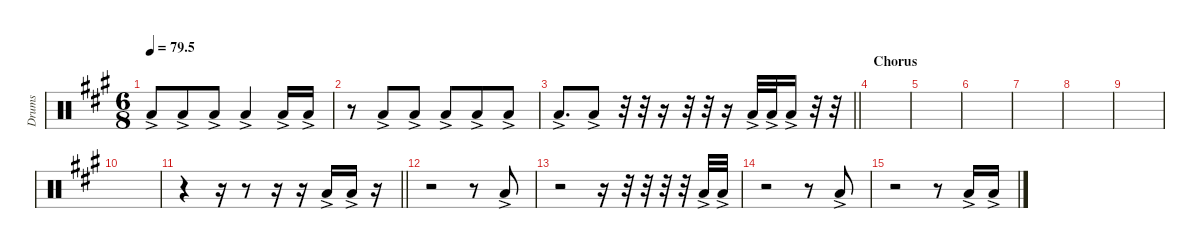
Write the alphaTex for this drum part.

\defaultSystemsLayout 4
\hideDynamics
\bracketExtendMode nobrackets
\otherSystemsTrackNameOrientation horizontal
\track ("Tom 03" "Drums") {instrument percussion}
\staff {score}
\articulation defaults
\ts (6 8)
\tempo
79.5
\accidentals auto
\clef neutral
\ottava regular
\simile none
\scale
0.333333
\ks a "Low Tom (hit)"{ac acc forcenatural}.8{dy f} "Low Tom (hit)"{ac acc forcenatural}.8 "Low Tom (hit)"{ac acc forcenatural}.8 "Low Tom (hit)"{ac acc forcenatural}.4 "Low Tom (hit)"{ac acc forcenatural}.16 "Low Tom (hit)"{ac acc forcenatural}.16
|
\scale
0.333333 r.8 "Low Tom (hit)"{ac acc forcenatural}.8 "Low Tom (hit)"{ac acc forcenatural}.8 "Low Tom (hit)"{ac acc forcenatural}.8 "Low Tom (hit)"{ac acc forcenatural}.8 "Low Tom (hit)"{ac acc forcenatural}.8 |
\scale
0.333333
\barLineRight lightlight "Low Tom (hit)"{ac acc forcenatural}.8{d} "Low Tom (hit)"{ac acc forcenatural}.8
r.32 r.32 r.16 r.32 r.32 r.16 "Low Tom (hit)"{ac acc forcenatural}.32 "Low Tom (hit)"{ac acc forcenatural}.32 "Low Tom (hit)"{ac acc forcenatural}.16 r.32 r.32 |
\section ("" "Chorus")
\scale
0.333333 |
\scale
0.333333 |
\scale
0.333333 |
\scale
0.333333 |
\scale
0.333333 |
\scale
0.333333 |
\scale
0.333333 |
\scale
0.333333
\barLineRight lightlight
r.4 r.16 r.8 r.16 r.16 "Low Tom (hit)"{ac acc forcenatural}.16 "Low Tom (hit)"{ac acc forcenatural}.16 r.16 |
\scale
0.333333 r.2 r.8 "Low Tom (hit)"{ac acc forcenatural}.8 |
\scale
0.333333 r.2 r.16 r.32 r.32 r.32 r.32 "Low Tom (hit)"{ac acc forcenatural}.32 "Low Tom (hit)"{ac acc forcenatural}.32 |
\scale
0.333333 r.2 r.8 "Low Tom (hit)"{ac acc forcenatural}.8 |
\scale
0.333333 r.2 r.8 "Low Tom (hit)"{ac acc forcenatural}.16 "Low Tom (hit)"{ac acc forcenatural}.16 |
\scale
0.333333
